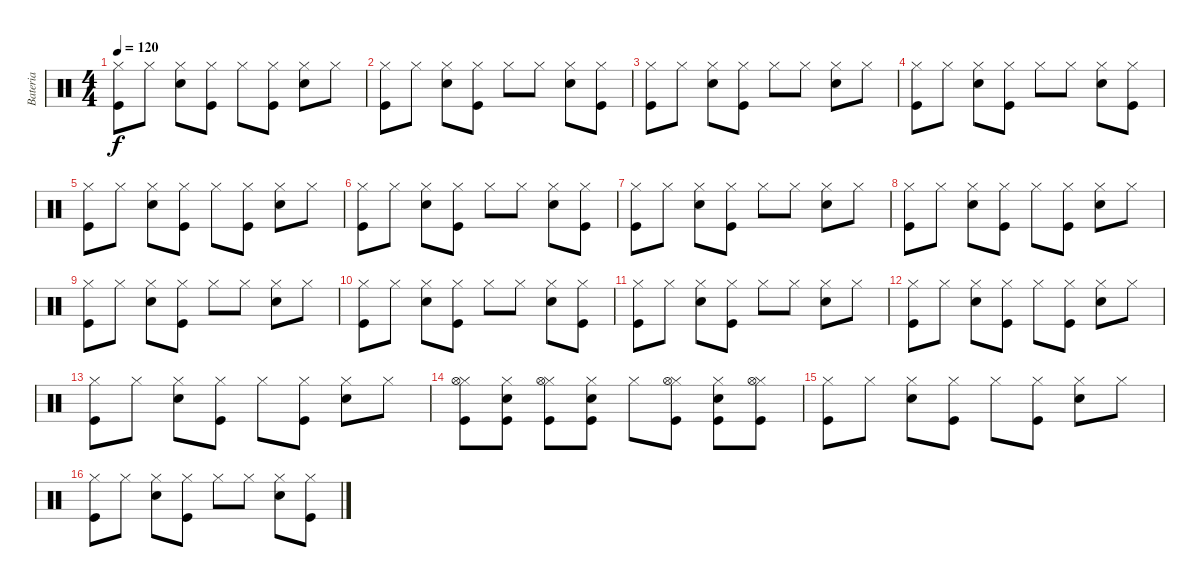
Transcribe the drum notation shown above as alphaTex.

\track ("Bateria" "Bateria") {instrument percussion}
\staff {score}
\articulation defaults
\ts (4 4)
\tempo 120
\clef neutral
\ks c
("Hi-Hat (closed)" "Kick (hit)").8{dy f} "Hi-Hat (closed)".8 ("Hi-Hat (closed)" "Electric Snare (hit)").8 ("Hi-Hat (closed)" "Kick (hit)").8 "Hi-Hat (closed)".8 ("Hi-Hat (closed)" "Kick (hit)").8 ("Hi-Hat (closed)" "Electric Snare (hit)").8 "Hi-Hat (closed)".8 |
("Hi-Hat (closed)" "Kick (hit)").8 "Hi-Hat (closed)".8 ("Hi-Hat (closed)" "Electric Snare (hit)").8 ("Hi-Hat (closed)" "Kick (hit)").8 "Hi-Hat (closed)".8 "Hi-Hat (closed)".8 ("Hi-Hat (closed)" "Electric Snare (hit)").8 ("Hi-Hat (closed)" "Kick (hit)").8 |
("Hi-Hat (closed)" "Kick (hit)").8 "Hi-Hat (closed)".8 ("Hi-Hat (closed)" "Electric Snare (hit)").8 ("Hi-Hat (closed)" "Kick (hit)").8 "Hi-Hat (closed)".8 "Hi-Hat (closed)".8 ("Hi-Hat (closed)" "Electric Snare (hit)").8 "Hi-Hat (closed)".8 |
("Hi-Hat (closed)" "Kick (hit)").8 "Hi-Hat (closed)".8 ("Hi-Hat (closed)" "Electric Snare (hit)").8 ("Hi-Hat (closed)" "Kick (hit)").8 "Hi-Hat (closed)".8 "Hi-Hat (closed)".8 ("Hi-Hat (closed)" "Electric Snare (hit)").8 ("Hi-Hat (closed)" "Kick (hit)").8 |
("Hi-Hat (closed)" "Kick (hit)").8 "Hi-Hat (closed)".8 ("Hi-Hat (closed)" "Electric Snare (hit)").8 ("Hi-Hat (closed)" "Kick (hit)").8 "Hi-Hat (closed)".8 ("Hi-Hat (closed)" "Kick (hit)").8 ("Hi-Hat (closed)" "Electric Snare (hit)").8 "Hi-Hat (closed)".8 |
("Hi-Hat (closed)" "Kick (hit)").8 "Hi-Hat (closed)".8 ("Hi-Hat (closed)" "Electric Snare (hit)").8 ("Hi-Hat (closed)" "Kick (hit)").8 "Hi-Hat (closed)".8 "Hi-Hat (closed)".8 ("Hi-Hat (closed)" "Electric Snare (hit)").8 ("Hi-Hat (closed)" "Kick (hit)").8 |
("Hi-Hat (closed)" "Kick (hit)").8 "Hi-Hat (closed)".8 ("Hi-Hat (closed)" "Electric Snare (hit)").8 ("Hi-Hat (closed)" "Kick (hit)").8 "Hi-Hat (closed)".8 "Hi-Hat (closed)".8 ("Hi-Hat (closed)" "Electric Snare (hit)").8 "Hi-Hat (closed)".8 |
("Hi-Hat (closed)" "Kick (hit)").8 "Hi-Hat (closed)".8 ("Hi-Hat (closed)" "Electric Snare (hit)").8 ("Hi-Hat (closed)" "Kick (hit)").8 "Hi-Hat (closed)".8 ("Hi-Hat (closed)" "Kick (hit)").8 ("Hi-Hat (closed)" "Electric Snare (hit)").8 "Hi-Hat (closed)".8 |
("Hi-Hat (closed)" "Kick (hit)").8 "Hi-Hat (closed)".8 ("Hi-Hat (closed)" "Electric Snare (hit)").8 ("Hi-Hat (closed)" "Kick (hit)").8 "Hi-Hat (closed)".8 "Hi-Hat (closed)".8 ("Hi-Hat (closed)" "Electric Snare (hit)").8 "Hi-Hat (closed)".8 |
("Hi-Hat (closed)" "Kick (hit)").8 "Hi-Hat (closed)".8 ("Hi-Hat (closed)" "Electric Snare (hit)").8 ("Hi-Hat (closed)" "Kick (hit)").8 "Hi-Hat (closed)".8 "Hi-Hat (closed)".8 ("Hi-Hat (closed)" "Electric Snare (hit)").8 ("Hi-Hat (closed)" "Kick (hit)").8 |
("Hi-Hat (closed)" "Kick (hit)").8 "Hi-Hat (closed)".8 ("Hi-Hat (closed)" "Electric Snare (hit)").8 ("Hi-Hat (closed)" "Kick (hit)").8 "Hi-Hat (closed)".8 "Hi-Hat (closed)".8 ("Hi-Hat (closed)" "Electric Snare (hit)").8 "Hi-Hat (closed)".8 |
("Hi-Hat (closed)" "Kick (hit)").8 "Hi-Hat (closed)".8 ("Hi-Hat (closed)" "Electric Snare (hit)").8 ("Hi-Hat (closed)" "Kick (hit)").8 "Hi-Hat (closed)".8 ("Hi-Hat (closed)" "Kick (hit)").8 ("Hi-Hat (closed)" "Electric Snare (hit)").8 "Hi-Hat (closed)".8 |
("Hi-Hat (closed)" "Kick (hit)").8 "Hi-Hat (closed)".8 ("Hi-Hat (closed)" "Electric Snare (hit)").8 ("Hi-Hat (closed)" "Kick (hit)").8 "Hi-Hat (closed)".8 ("Hi-Hat (closed)" "Kick (hit)").8 ("Hi-Hat (closed)" "Electric Snare (hit)").8 "Hi-Hat (closed)".8 |
("Hi-Hat (closed)" "Hi-Hat (open)" "Kick (hit)").8 ("Hi-Hat (closed)" "Electric Snare (hit)" "Kick (hit)").8 ("Hi-Hat (closed)" "Hi-Hat (open)" "Kick (hit)").8 ("Hi-Hat (closed)" "Electric Snare (hit)" "Kick (hit)").8 "Hi-Hat (closed)".8 ("Hi-Hat (closed)" "Hi-Hat (open)" "Kick (hit)").8 ("Hi-Hat (closed)" "Electric Snare (hit)" "Kick (hit)").8 ("Hi-Hat (closed)" "Hi-Hat (open)" "Kick (hit)").8 |
("Hi-Hat (closed)" "Kick (hit)").8 "Hi-Hat (closed)".8 ("Hi-Hat (closed)" "Electric Snare (hit)").8 ("Hi-Hat (closed)" "Kick (hit)").8 "Hi-Hat (closed)".8 ("Hi-Hat (closed)" "Kick (hit)").8 ("Hi-Hat (closed)" "Electric Snare (hit)").8 "Hi-Hat (closed)".8 |
("Hi-Hat (closed)" "Kick (hit)").8 "Hi-Hat (closed)".8 ("Hi-Hat (closed)" "Electric Snare (hit)").8 ("Hi-Hat (closed)" "Kick (hit)").8 "Hi-Hat (closed)".8 "Hi-Hat (closed)".8 ("Hi-Hat (closed)" "Electric Snare (hit)").8 ("Hi-Hat (closed)" "Kick (hit)").8
